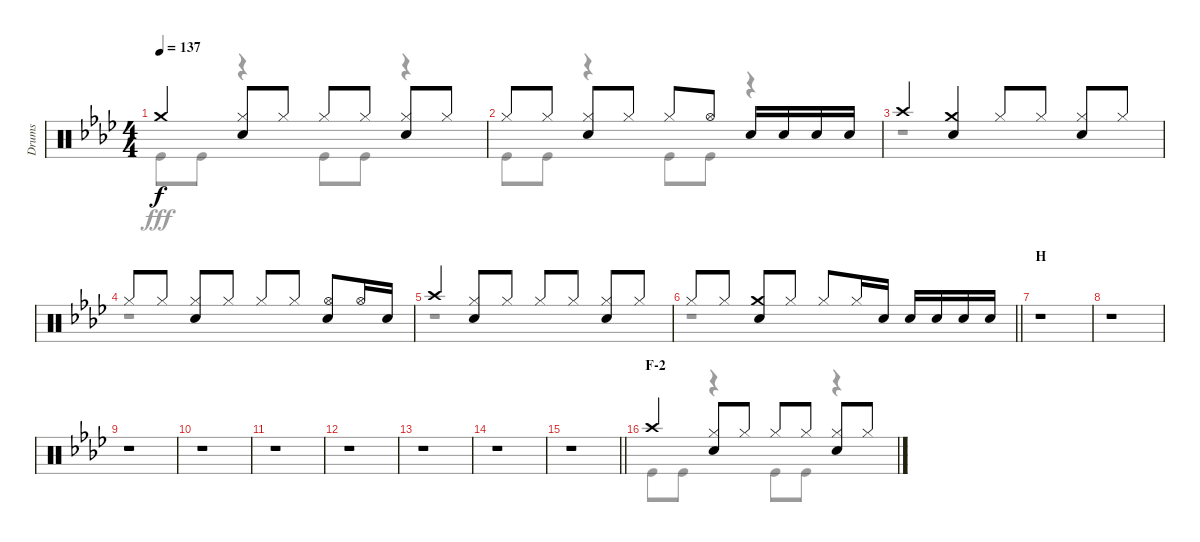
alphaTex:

\track ("Drums" "Drums") {instrument percussion}
\staff {score}
\articulation defaults
\voice
\ts (4 4)
\tempo 137
\clef neutral
\ks ab "Crash medium (hit)".4{dy f}
("Hi-Hat (closed)" "Snare (hit) 2").8 "Hi-Hat (closed)".8 "Hi-Hat (closed)".8 "Hi-Hat (closed)".8 ("Hi-Hat (closed)" "Snare (hit) 2").8 "Hi-Hat (closed)".8 |
"Hi-Hat (closed)".8 "Hi-Hat (closed)".8 ("Hi-Hat (closed)" "Snare (hit) 2").8 "Hi-Hat (closed)".8 "Hi-Hat (closed)".8 "Hi-Hat (open)".8 "Snare (hit) 2".16 "Snare (hit) 2".16 "Snare (hit) 2".16 "Snare (hit) 2".16 |
"Crash high (hit)".4 ("Crash medium (hit)" "Snare (hit) 2").4 "Hi-Hat (closed)".8 "Hi-Hat (closed)".8 ("Hi-Hat (closed)" "Snare (hit) 2").8 "Hi-Hat (closed)".8 |
"Hi-Hat (closed)".8 "Hi-Hat (closed)".8 ("Hi-Hat (closed)" "Snare (hit) 2").8 "Hi-Hat (closed)".8 "Hi-Hat (closed)".8 "Hi-Hat (closed)".8 ("Hi-Hat (open)" "Snare (hit) 2").8 "Hi-Hat (open)".16 "Snare (hit) 2".16 |
"Crash high (hit)".4 ("Hi-Hat (closed)" "Snare (hit) 2").8 "Hi-Hat (closed)".8 "Hi-Hat (closed)".8 "Hi-Hat (closed)".8 ("Hi-Hat (closed)" "Snare (hit) 2").8 "Hi-Hat (closed)".8 |
\barLineRight lightlight "Hi-Hat (closed)".8 "Hi-Hat (closed)".8
("Crash medium (hit)" "Snare (hit) 2").8 "Hi-Hat (closed)".8 "Hi-Hat (closed)".8 "Hi-Hat (closed)".16 "Snare (hit) 2".16 "Snare (hit) 2".16 "Snare (hit) 2".16 "Snare (hit) 2".16 "Snare (hit) 2".16 |
\section ("" "H")
r.1 |
r.1 |
r.1 |
r.1 |
r.1 |
r.1 |
r.1 |
r.1 |
\barLineRight lightlight
r.1 |
\section ("" "F-2")
"Crash high (hit)".4 ("Hi-Hat (closed)" "Snare (hit) 2").8 "Hi-Hat (closed)".8 "Hi-Hat (closed)".8 "Hi-Hat (closed)".8 ("Hi-Hat (closed)" "Snare (hit) 2").8 "Hi-Hat (closed)".8
\voice
\clef neutral
\ottava regular
\simile none
\ks ab "Kick (hit)".8{dy fff} "Kick (hit)".8
r.4 "Kick (hit)".8 "Kick (hit)".8 r.4 |
"Kick (hit)".8 "Kick (hit)".8 r.4 "Kick (hit)".8 "Kick (hit)".8 r.4 |
r.1 |
r.1 |
r.1 |
\barLineRight lightlight
r.1 |
r.1 |
r.1 |
r.1 |
r.1 |
r.1 |
r.1 |
r.1 |
r.1 |
\barLineRight lightlight
r.1 |
"Kick (hit)".8 "Kick (hit)".8 r.4 "Kick (hit)".8 "Kick (hit)".8 r.4
